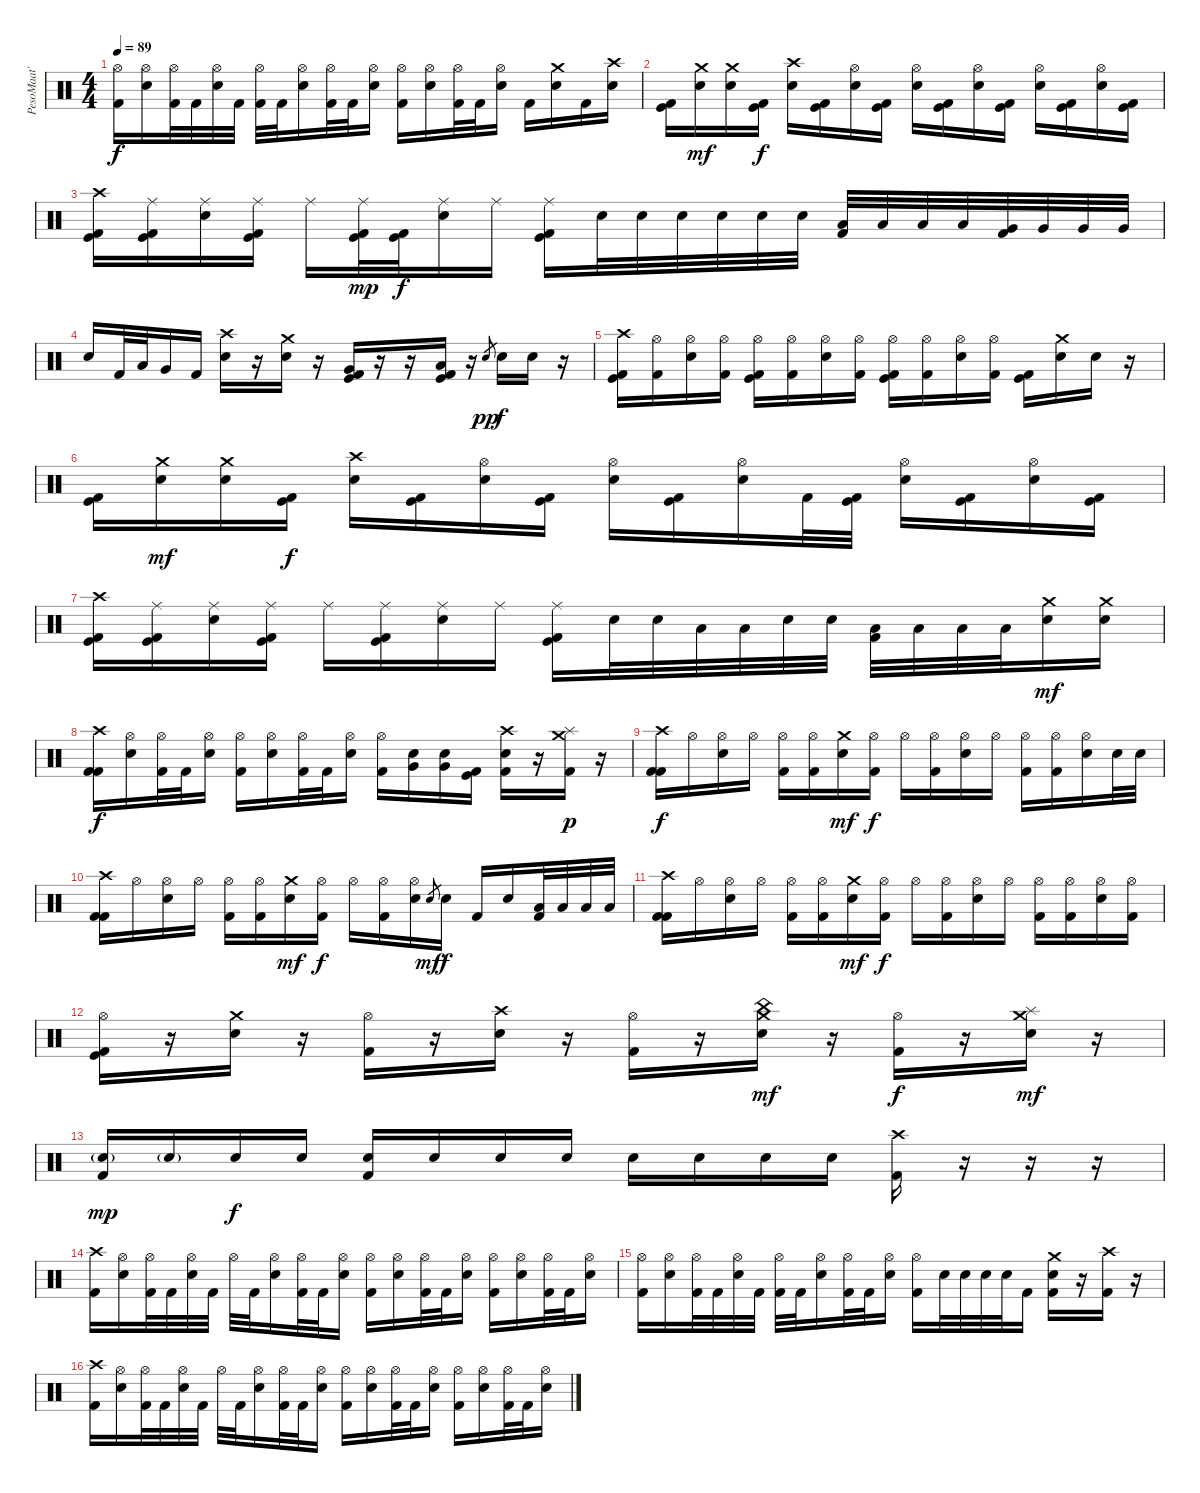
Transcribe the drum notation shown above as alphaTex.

\track ("PesoMaat' us" "PesoMaat' ") {instrument percussion}
\staff {score}
\articulation defaults
\ts (4 4)
\tempo 89
\clef neutral
\ks c
("Hi-Hat (open)" "Kick (hit) 2").16{dy f} ("Hi-Hat (open)" "Electric Snare (hit)").16 ("Hi-Hat (open)" "Kick (hit) 2").32 "Kick (hit) 2".32 ("Hi-Hat (open)" "Electric Snare (hit)").32 "Kick (hit) 2".32 ("Hi-Hat (open)" "Kick (hit) 2").32 "Kick (hit) 2".32 ("Hi-Hat (open)" "Electric Snare (hit)").16 ("Hi-Hat (open)" "Kick (hit) 2").32 "Kick (hit) 2".32 ("Hi-Hat (open)" "Electric Snare (hit)").16 ("Hi-Hat (open)" "Kick (hit) 2").16 ("Hi-Hat (open)" "Electric Snare (hit)").16 ("Hi-Hat (open)" "Kick (hit) 2").32 "Kick (hit) 2".32 ("Hi-Hat (open)" "Electric Snare (hit)").16 "Kick (hit) 2".16 ("Crash medium (hit)" "Electric Snare (hit)").16 "Kick (hit) 2".16 ("Crash high (hit)" "Electric Snare (hit)").16 |
("Kick (hit)" "Kick (hit) 2").16 ("Crash medium (hit)" "Electric Snare (hit)").16{dy mf} ("Crash medium (hit)" "Electric Snare (hit)").16 ("Kick (hit)" "Kick (hit) 2").16{dy f} ("Crash high (hit)" "Electric Snare (hit)").16 ("Kick (hit)" "Kick (hit) 2").16 ("Hi-Hat (open)" "Electric Snare (hit)").16 ("Kick (hit)" "Kick (hit) 2").16 ("Hi-Hat (open)" "Electric Snare (hit)").16 ("Kick (hit)" "Kick (hit) 2").16 ("Hi-Hat (open)" "Electric Snare (hit)").16 ("Kick (hit)" "Kick (hit) 2").16 ("Hi-Hat (open)" "Electric Snare (hit)").16 ("Kick (hit)" "Kick (hit) 2").16 ("Hi-Hat (open)" "Electric Snare (hit)").16 ("Kick (hit)" "Kick (hit) 2").16 |
("Crash high (hit)" "Kick (hit)" "Kick (hit) 2").16 ("Ride (middle)" "Kick (hit)" "Kick (hit) 2").16 ("Ride (middle)" "Electric Snare (hit)").16 ("Ride (middle)" "Kick (hit)" "Kick (hit) 2").16 "Ride (middle)".16 ("Ride (middle)" "Kick (hit)" "Kick (hit) 2").32{dy mp} ("Kick (hit)" "Kick (hit) 2").32{dy f} ("Ride (middle)" "Electric Snare (hit)").16 "Ride (middle)".16 ("Ride (middle)" "Kick (hit)" "Kick (hit) 2").16 "Electric Snare (hit)".32 "Electric Snare (hit)".32 "Electric Snare (hit)".32 "Electric Snare (hit)".32 "Electric Snare (hit)".32 "Electric Snare (hit)".32 ("Low Tom (hit)" "Kick (hit) 2").32 "Low Tom (hit)".32 "Low Tom (hit)".32 "Low Tom (hit)".32 ("Very Low Tom (hit)" "Kick (hit) 2").32 "Very Low Tom (hit)".32 "Very Low Tom (hit)".32 "Very Low Tom (hit)".32 |
"Electric Snare (hit)".16 "Kick (hit) 2".32 "Low Tom (hit)".32 "Very Low Tom (hit)".16 "Kick (hit) 2".16 ("Crash high (hit)" "Electric Snare (hit)").16 r.16 ("Crash medium (hit)" "Electric Snare (hit)").16 r.16 ("Very Low Tom (hit)" "Kick (hit)" "Kick (hit) 2").16 r.16 r.16 ("Low Tom (hit)" "Kick (hit)" "Kick (hit) 2").16 r.16 "Electric Snare (hit)".8{gr dy pp} "Electric Snare (hit)".16{dy f} "Electric Snare (hit)".16 r.16 |
("Crash high (hit)" "Kick (hit)" "Kick (hit) 2").16 ("Hi-Hat (open)" "Kick (hit) 2").16 ("Hi-Hat (open)" "Electric Snare (hit)").16 ("Hi-Hat (open)" "Kick (hit) 2").16 ("Hi-Hat (open)" "Kick (hit)" "Kick (hit) 2").16 ("Hi-Hat (open)" "Kick (hit) 2").16 ("Hi-Hat (open)" "Electric Snare (hit)").16 ("Hi-Hat (open)" "Kick (hit) 2").16 ("Hi-Hat (open)" "Kick (hit)" "Kick (hit) 2").16 ("Hi-Hat (open)" "Kick (hit) 2").16 ("Hi-Hat (open)" "Electric Snare (hit)").16 ("Hi-Hat (open)" "Kick (hit) 2").16 ("Kick (hit)" "Kick (hit) 2").16 ("Crash medium (hit)" "Electric Snare (hit)").16 "Electric Snare (hit)".16 r.16 |
("Kick (hit)" "Kick (hit) 2").16 ("Crash medium (hit)" "Electric Snare (hit)").16{dy mf} ("Crash medium (hit)" "Electric Snare (hit)").16 ("Kick (hit)" "Kick (hit) 2").16{dy f} ("Crash high (hit)" "Electric Snare (hit)").16 ("Kick (hit)" "Kick (hit) 2").16 ("Hi-Hat (open)" "Electric Snare (hit)").16 ("Kick (hit)" "Kick (hit) 2").16 ("Hi-Hat (open)" "Electric Snare (hit)").16 ("Kick (hit)" "Kick (hit) 2").16 ("Hi-Hat (open)" "Electric Snare (hit)").16 "Kick (hit) 2".32 ("Kick (hit)" "Kick (hit) 2").32 ("Hi-Hat (open)" "Electric Snare (hit)").16 ("Kick (hit)" "Kick (hit) 2").16 ("Hi-Hat (open)" "Electric Snare (hit)").16 ("Kick (hit)" "Kick (hit) 2").16 |
("Crash high (hit)" "Kick (hit)" "Kick (hit) 2").16 ("Ride (middle)" "Kick (hit)" "Kick (hit) 2").16 ("Ride (middle)" "Electric Snare (hit)").16 ("Ride (middle)" "Kick (hit)" "Kick (hit) 2").16 "Ride (middle)".16 ("Ride (middle)" "Kick (hit)" "Kick (hit) 2").16 ("Ride (middle)" "Electric Snare (hit)").16 "Ride (middle)".16 ("Ride (middle)" "Kick (hit)" "Kick (hit) 2").16 "Electric Snare (hit)".32 "Electric Snare (hit)".32 "Low Tom (hit)".32 "Low Tom (hit)".32 "Electric Snare (hit)".32 "Electric Snare (hit)".32 ("Low Tom (hit)" "Kick (hit) 2").32 "Low Tom (hit)".32 "Low Tom (hit)".32 "Low Tom (hit)".32 ("Crash medium (hit)" "Electric Snare (hit)").16{dy mf} ("Crash medium (hit)" "Electric Snare (hit)").16 |
("Crash high (hit)" "Kick (hit) 2" "Kick (hit) 2").16{dy f} ("Hi-Hat (open)" "Electric Snare (hit)").16 ("Hi-Hat (open)" "Kick (hit) 2").32 "Kick (hit) 2".32 ("Hi-Hat (open)" "Electric Snare (hit)").16 ("Hi-Hat (open)" "Kick (hit) 2").16 ("Hi-Hat (open)" "Electric Snare (hit)").16 ("Hi-Hat (open)" "Kick (hit) 2").32 "Kick (hit) 2".32 ("Hi-Hat (open)" "Electric Snare (hit)").16 ("Hi-Hat (open)" "Kick (hit) 2").16 ("Electric Snare (hit)" "Very Low Tom (hit)").16 ("Electric Snare (hit)" "Very Low Tom (hit)").16 ("Kick (hit)" "Kick (hit) 2").16 ("Crash high (hit)" "Electric Snare (hit)" "Kick (hit) 2").16 r.16 ("Crash medium (hit)" "Splash (hit)" "Kick (hit) 2").16{dy p} r.16 |
("Crash high (hit)" "Kick (hit) 2" "Kick (hit) 2").16{dy f} "Hi-Hat (open)".16 ("Hi-Hat (open)" "Electric Snare (hit)").16 "Hi-Hat (open)".16 ("Hi-Hat (open)" "Kick (hit) 2").16 ("Hi-Hat (open)" "Kick (hit) 2").16 ("Crash medium (hit)" "Electric Snare (hit)").16{dy mf} ("Hi-Hat (open)" "Kick (hit) 2").16{dy f} "Hi-Hat (open)".16 ("Hi-Hat (open)" "Kick (hit) 2").16 ("Hi-Hat (open)" "Electric Snare (hit)").16 "Hi-Hat (open)".16 ("Hi-Hat (open)" "Kick (hit) 2").16 ("Hi-Hat (open)" "Kick (hit) 2").16 ("Hi-Hat (open)" "Electric Snare (hit)").16 "Electric Snare (hit)".32 "Electric Snare (hit)".32 |
("Crash high (hit)" "Kick (hit) 2" "Kick (hit) 2").16 "Hi-Hat (open)".16 ("Hi-Hat (open)" "Electric Snare (hit)").16 "Hi-Hat (open)".16 ("Hi-Hat (open)" "Kick (hit) 2").16 ("Hi-Hat (open)" "Kick (hit) 2").16 ("Crash medium (hit)" "Electric Snare (hit)").16{dy mf} ("Hi-Hat (open)" "Kick (hit) 2").16{dy f} "Hi-Hat (open)".16 ("Hi-Hat (open)" "Kick (hit) 2").16 ("Hi-Hat (open)" "Electric Snare (hit)").16 "Electric Snare (hit)".8{gr dy mf} "Electric Snare (hit)".16{dy f} "Kick (hit) 2".16 "Electric Snare (hit)".16 ("Low Tom (hit)" "Kick (hit) 2").32 "Low Tom (hit)".32 "Low Tom (hit)".32 "Low Tom (hit)".32 |
("Crash high (hit)" "Kick (hit) 2" "Kick (hit) 2").16 "Hi-Hat (open)".16 ("Hi-Hat (open)" "Electric Snare (hit)").16 "Hi-Hat (open)".16 ("Hi-Hat (open)" "Kick (hit) 2").16 ("Hi-Hat (open)" "Kick (hit) 2").16 ("Crash medium (hit)" "Electric Snare (hit)").16{dy mf} ("Hi-Hat (open)" "Kick (hit) 2").16{dy f} "Hi-Hat (open)".16 ("Hi-Hat (open)" "Kick (hit) 2").16 ("Hi-Hat (open)" "Electric Snare (hit)").16 "Hi-Hat (open)".16 ("Hi-Hat (open)" "Kick (hit) 2").16 ("Hi-Hat (open)" "Kick (hit) 2").16 ("Hi-Hat (open)" "Electric Snare (hit)").16 ("Hi-Hat (open)" "Kick (hit) 2").16 |
("Hi-Hat (open)" "Kick (hit)" "Kick (hit) 2").16 r.16 ("Crash medium (hit)" "Electric Snare (hit)").16 r.16 ("Hi-Hat (open)" "Kick (hit) 2").16 r.16 ("Crash high (hit)" "Electric Snare (hit)").16 r.16 ("Hi-Hat (open)" "Kick (hit) 2").16 r.16 ("China (hit)" "Crash medium (hit)" "Electric Snare (hit)").16{dy mf} r.16 ("Hi-Hat (open)" "Kick (hit) 2").16{dy f} r.16 ("Splash (hit)" "Crash medium (hit)" "Electric Snare (hit)").16{dy mf} r.16 |
("Electric Snare (hit)"{g} "Kick (hit) 2").16{dy mp} "Electric Snare (hit)"{g}.16 "Electric Snare (hit)".16{dy f} "Electric Snare (hit)".16 ("Electric Snare (hit)" "Kick (hit) 2").16 "Electric Snare (hit)".16 "Electric Snare (hit)".16 "Electric Snare (hit)".16 "Electric Snare (hit)".16 "Electric Snare (hit)".16 "Electric Snare (hit)".16 "Electric Snare (hit)".16 ("Crash high (hit)" "Kick (hit) 2").16 r.16 r.16 r.16 |
("Crash high (hit)" "Kick (hit) 2").16 ("Hi-Hat (open)" "Electric Snare (hit)").16 ("Hi-Hat (open)" "Kick (hit) 2").32 "Kick (hit) 2".32 ("Hi-Hat (open)" "Electric Snare (hit)").32 "Kick (hit) 2".32 "Hi-Hat (open)".32 "Kick (hit) 2".32 ("Hi-Hat (open)" "Electric Snare (hit)").16 ("Hi-Hat (open)" "Kick (hit) 2").32 "Kick (hit) 2".32 ("Hi-Hat (open)" "Electric Snare (hit)").16 ("Hi-Hat (open)" "Kick (hit) 2").16 ("Hi-Hat (open)" "Electric Snare (hit)").16 ("Hi-Hat (open)" "Kick (hit) 2").32 "Kick (hit) 2".32 ("Hi-Hat (open)" "Electric Snare (hit)").16 ("Hi-Hat (open)" "Kick (hit) 2").16 ("Hi-Hat (open)" "Electric Snare (hit)").16 ("Hi-Hat (open)" "Kick (hit) 2").32 "Kick (hit) 2".32 ("Hi-Hat (open)" "Electric Snare (hit)").16 |
("Hi-Hat (open)" "Kick (hit) 2").16 ("Hi-Hat (open)" "Electric Snare (hit)").16 ("Hi-Hat (open)" "Kick (hit) 2").32 "Kick (hit) 2".32 ("Hi-Hat (open)" "Electric Snare (hit)").32 "Kick (hit) 2".32 ("Hi-Hat (open)" "Kick (hit) 2").32 "Kick (hit) 2".32 ("Hi-Hat (open)" "Electric Snare (hit)").16 ("Hi-Hat (open)" "Kick (hit) 2").32 "Kick (hit) 2".32 ("Hi-Hat (open)" "Electric Snare (hit)").16 ("Hi-Hat (open)" "Kick (hit) 2").16 "Electric Snare (hit)".32 "Electric Snare (hit)".32 "Electric Snare (hit)".32 "Electric Snare (hit)".32 "Kick (hit) 2".16 ("Crash medium (hit)" "Electric Snare (hit)" "Kick (hit) 2").16 r.16 ("Crash high (hit)" "Kick (hit) 2").16 r.16 |
("Crash high (hit)" "Kick (hit) 2").16 ("Hi-Hat (open)" "Electric Snare (hit)").16 ("Hi-Hat (open)" "Kick (hit) 2").32 "Kick (hit) 2".32 ("Hi-Hat (open)" "Electric Snare (hit)").32 "Kick (hit) 2".32 "Hi-Hat (open)".32 "Kick (hit) 2".32 ("Hi-Hat (open)" "Electric Snare (hit)").16 ("Hi-Hat (open)" "Kick (hit) 2").32 "Kick (hit) 2".32 ("Hi-Hat (open)" "Electric Snare (hit)").16 ("Hi-Hat (open)" "Kick (hit) 2").16 ("Hi-Hat (open)" "Electric Snare (hit)").16 ("Hi-Hat (open)" "Kick (hit) 2").32 "Kick (hit) 2".32 ("Hi-Hat (open)" "Electric Snare (hit)").16 ("Hi-Hat (open)" "Kick (hit) 2").16 ("Hi-Hat (open)" "Electric Snare (hit)").16 ("Hi-Hat (open)" "Kick (hit) 2").32 "Kick (hit) 2".32 ("Hi-Hat (open)" "Electric Snare (hit)").16
